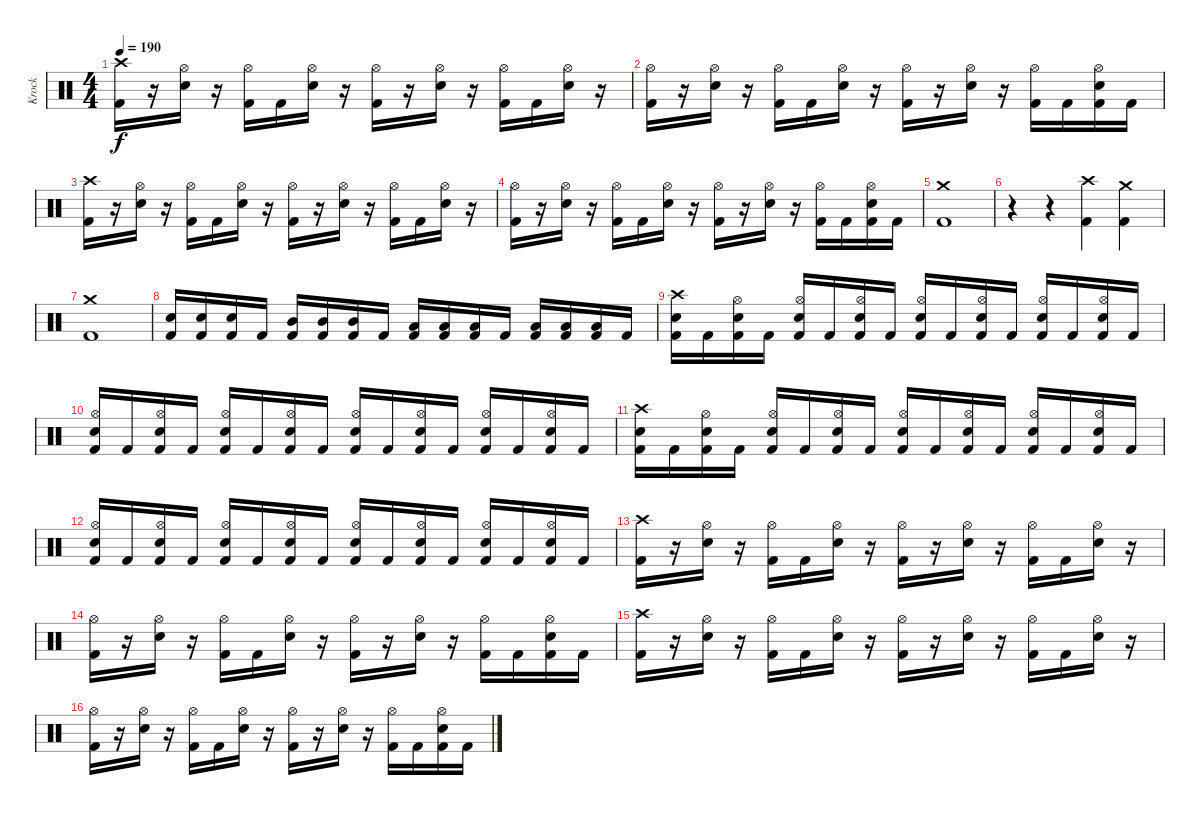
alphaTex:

\track ("Krock" "Krock") {instrument percussion}
\staff {score}
\articulation defaults
\ts (4 4)
\tempo 190
\clef neutral
\ks c
("Crash high (hit)" "Kick (hit) 2").16{dy f} r.16 ("Hi-Hat (open)" "Electric Snare (hit)").16 r.16 ("Hi-Hat (open)" "Kick (hit) 2").16 "Kick (hit) 2".16 ("Hi-Hat (open)" "Electric Snare (hit)").16 r.16 ("Hi-Hat (open)" "Kick (hit) 2").16 r.16 ("Hi-Hat (open)" "Electric Snare (hit)").16 r.16 ("Hi-Hat (open)" "Kick (hit) 2").16 "Kick (hit) 2".16 ("Hi-Hat (open)" "Electric Snare (hit)").16 r.16 |
("Hi-Hat (open)" "Kick (hit) 2").16 r.16 ("Hi-Hat (open)" "Electric Snare (hit)").16 r.16 ("Hi-Hat (open)" "Kick (hit) 2").16 "Kick (hit) 2".16 ("Hi-Hat (open)" "Electric Snare (hit)").16 r.16 ("Hi-Hat (open)" "Kick (hit) 2").16 r.16 ("Hi-Hat (open)" "Electric Snare (hit)").16 r.16 ("Hi-Hat (open)" "Kick (hit) 2").16 "Kick (hit) 2".16 ("Hi-Hat (open)" "Electric Snare (hit)" "Kick (hit) 2").16 "Kick (hit) 2".16 |
("Crash high (hit)" "Kick (hit) 2").16 r.16 ("Hi-Hat (open)" "Electric Snare (hit)").16 r.16 ("Hi-Hat (open)" "Kick (hit) 2").16 "Kick (hit) 2".16 ("Hi-Hat (open)" "Electric Snare (hit)").16 r.16 ("Hi-Hat (open)" "Kick (hit) 2").16 r.16 ("Hi-Hat (open)" "Electric Snare (hit)").16 r.16 ("Hi-Hat (open)" "Kick (hit) 2").16 "Kick (hit) 2".16 ("Hi-Hat (open)" "Electric Snare (hit)").16 r.16 |
("Hi-Hat (open)" "Kick (hit) 2").16 r.16 ("Hi-Hat (open)" "Electric Snare (hit)").16 r.16 ("Hi-Hat (open)" "Kick (hit) 2").16 "Kick (hit) 2".16 ("Hi-Hat (open)" "Electric Snare (hit)").16 r.16 ("Hi-Hat (open)" "Kick (hit) 2").16 r.16 ("Hi-Hat (open)" "Electric Snare (hit)").16 r.16 ("Hi-Hat (open)" "Kick (hit) 2").16 "Kick (hit) 2".16 ("Hi-Hat (open)" "Electric Snare (hit)" "Kick (hit) 2").16 "Kick (hit) 2".16 |
("Crash medium (hit)" "Kick (hit) 2").1 |
r.4 r.4 ("Crash high (hit)" "Kick (hit) 2").4 ("Crash medium (hit)" "Kick (hit) 2").4 |
("Crash medium (hit)" "Kick (hit) 2").1 |
("Electric Snare (hit)" "Kick (hit) 2").16 ("Electric Snare (hit)" "Kick (hit) 2").16 ("Electric Snare (hit)" "Kick (hit) 2").16 "Kick (hit) 2".16 ("Mid Tom (hit)" "Kick (hit) 2").16 ("Mid Tom (hit)" "Kick (hit) 2").16 ("Mid Tom (hit)" "Kick (hit) 2").16 "Kick (hit) 2".16 ("Low Tom (hit)" "Kick (hit) 2").16 ("Low Tom (hit)" "Kick (hit) 2").16 ("Low Tom (hit)" "Kick (hit) 2").16 "Kick (hit) 2".16 ("Low Floor Tom (hit)" "Kick (hit) 2").16 ("Low Floor Tom (hit)" "Kick (hit) 2").16 ("Low Floor Tom (hit)" "Kick (hit) 2").16 "Kick (hit) 2".16 |
("Crash high (hit)" "Electric Snare (hit)" "Kick (hit) 2").16 "Kick (hit) 2".16 ("Hi-Hat (open)" "Electric Snare (hit)" "Kick (hit) 2").16 "Kick (hit) 2".16 ("Hi-Hat (open)" "Electric Snare (hit)" "Kick (hit) 2").16 "Kick (hit) 2".16 ("Hi-Hat (open)" "Electric Snare (hit)" "Kick (hit) 2").16 "Kick (hit) 2".16 ("Hi-Hat (open)" "Electric Snare (hit)" "Kick (hit) 2").16 "Kick (hit) 2".16 ("Hi-Hat (open)" "Electric Snare (hit)" "Kick (hit) 2").16 "Kick (hit) 2".16 ("Hi-Hat (open)" "Electric Snare (hit)" "Kick (hit) 2").16 "Kick (hit) 2".16 ("Hi-Hat (open)" "Electric Snare (hit)" "Kick (hit) 2").16 "Kick (hit) 2".16 |
("Hi-Hat (open)" "Electric Snare (hit)" "Kick (hit) 2").16 "Kick (hit) 2".16 ("Hi-Hat (open)" "Electric Snare (hit)" "Kick (hit) 2").16 "Kick (hit) 2".16 ("Hi-Hat (open)" "Electric Snare (hit)" "Kick (hit) 2").16 "Kick (hit) 2".16 ("Hi-Hat (open)" "Electric Snare (hit)" "Kick (hit) 2").16 "Kick (hit) 2".16 ("Hi-Hat (open)" "Electric Snare (hit)" "Kick (hit) 2").16 "Kick (hit) 2".16 ("Hi-Hat (open)" "Electric Snare (hit)" "Kick (hit) 2").16 "Kick (hit) 2".16 ("Hi-Hat (open)" "Electric Snare (hit)" "Kick (hit) 2").16 "Kick (hit) 2".16 ("Hi-Hat (open)" "Electric Snare (hit)" "Kick (hit) 2").16 "Kick (hit) 2".16 |
("Crash high (hit)" "Electric Snare (hit)" "Kick (hit) 2").16 "Kick (hit) 2".16 ("Hi-Hat (open)" "Electric Snare (hit)" "Kick (hit) 2").16 "Kick (hit) 2".16 ("Hi-Hat (open)" "Electric Snare (hit)" "Kick (hit) 2").16 "Kick (hit) 2".16 ("Hi-Hat (open)" "Electric Snare (hit)" "Kick (hit) 2").16 "Kick (hit) 2".16 ("Hi-Hat (open)" "Electric Snare (hit)" "Kick (hit) 2").16 "Kick (hit) 2".16 ("Hi-Hat (open)" "Electric Snare (hit)" "Kick (hit) 2").16 "Kick (hit) 2".16 ("Hi-Hat (open)" "Electric Snare (hit)" "Kick (hit) 2").16 "Kick (hit) 2".16 ("Hi-Hat (open)" "Electric Snare (hit)" "Kick (hit) 2").16 "Kick (hit) 2".16 |
("Hi-Hat (open)" "Electric Snare (hit)" "Kick (hit) 2").16 "Kick (hit) 2".16 ("Hi-Hat (open)" "Electric Snare (hit)" "Kick (hit) 2").16 "Kick (hit) 2".16 ("Hi-Hat (open)" "Electric Snare (hit)" "Kick (hit) 2").16 "Kick (hit) 2".16 ("Hi-Hat (open)" "Electric Snare (hit)" "Kick (hit) 2").16 "Kick (hit) 2".16 ("Hi-Hat (open)" "Electric Snare (hit)" "Kick (hit) 2").16 "Kick (hit) 2".16 ("Hi-Hat (open)" "Electric Snare (hit)" "Kick (hit) 2").16 "Kick (hit) 2".16 ("Hi-Hat (open)" "Electric Snare (hit)" "Kick (hit) 2").16 "Kick (hit) 2".16 ("Hi-Hat (open)" "Electric Snare (hit)" "Kick (hit) 2").16 "Kick (hit) 2".16 |
("Crash high (hit)" "Kick (hit) 2").16 r.16 ("Hi-Hat (open)" "Electric Snare (hit)").16 r.16 ("Hi-Hat (open)" "Kick (hit) 2").16 "Kick (hit) 2".16 ("Hi-Hat (open)" "Electric Snare (hit)").16 r.16 ("Hi-Hat (open)" "Kick (hit) 2").16 r.16 ("Hi-Hat (open)" "Electric Snare (hit)").16 r.16 ("Hi-Hat (open)" "Kick (hit) 2").16 "Kick (hit) 2".16 ("Hi-Hat (open)" "Electric Snare (hit)").16 r.16 |
("Hi-Hat (open)" "Kick (hit) 2").16 r.16 ("Hi-Hat (open)" "Electric Snare (hit)").16 r.16 ("Hi-Hat (open)" "Kick (hit) 2").16 "Kick (hit) 2".16 ("Hi-Hat (open)" "Electric Snare (hit)").16 r.16 ("Hi-Hat (open)" "Kick (hit) 2").16 r.16 ("Hi-Hat (open)" "Electric Snare (hit)").16 r.16 ("Hi-Hat (open)" "Kick (hit) 2").16 "Kick (hit) 2".16 ("Hi-Hat (open)" "Electric Snare (hit)" "Kick (hit) 2").16 "Kick (hit) 2".16 |
("Crash high (hit)" "Kick (hit) 2").16 r.16 ("Hi-Hat (open)" "Electric Snare (hit)").16 r.16 ("Hi-Hat (open)" "Kick (hit) 2").16 "Kick (hit) 2".16 ("Hi-Hat (open)" "Electric Snare (hit)").16 r.16 ("Hi-Hat (open)" "Kick (hit) 2").16 r.16 ("Hi-Hat (open)" "Electric Snare (hit)").16 r.16 ("Hi-Hat (open)" "Kick (hit) 2").16 "Kick (hit) 2".16 ("Hi-Hat (open)" "Electric Snare (hit)").16 r.16 |
("Hi-Hat (open)" "Kick (hit) 2").16 r.16 ("Hi-Hat (open)" "Electric Snare (hit)").16 r.16 ("Hi-Hat (open)" "Kick (hit) 2").16 "Kick (hit) 2".16 ("Hi-Hat (open)" "Electric Snare (hit)").16 r.16 ("Hi-Hat (open)" "Kick (hit) 2").16 r.16 ("Hi-Hat (open)" "Electric Snare (hit)").16 r.16 ("Hi-Hat (open)" "Kick (hit) 2").16 "Kick (hit) 2".16 ("Hi-Hat (open)" "Electric Snare (hit)" "Kick (hit) 2").16 "Kick (hit) 2".16
